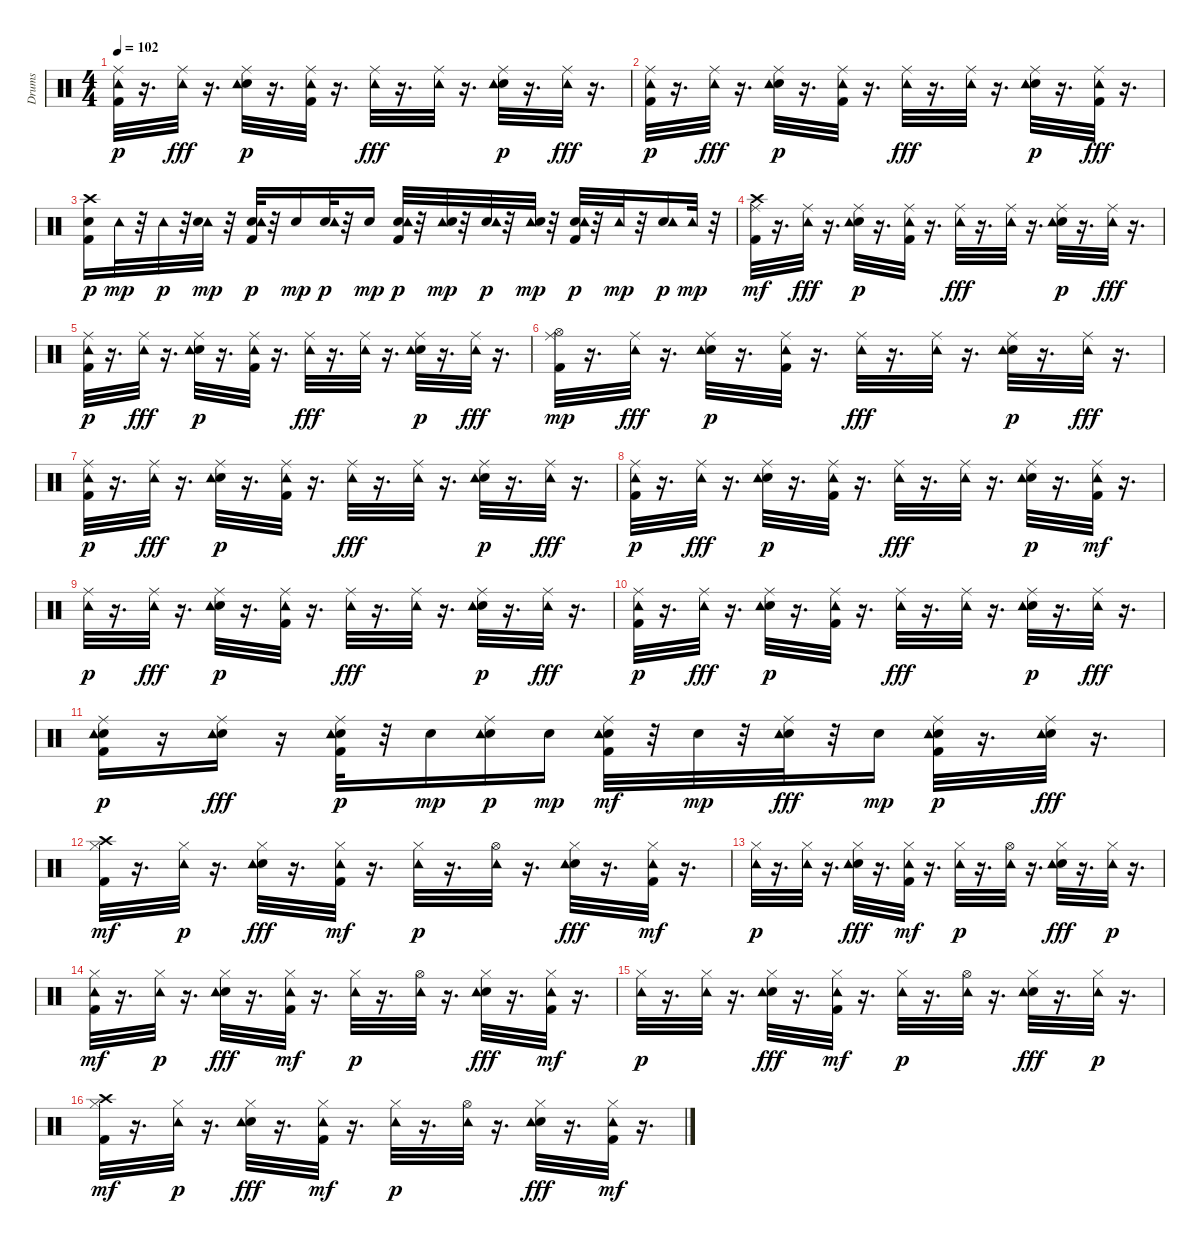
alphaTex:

\track ("Drums" "Drums") {instrument percussion}
\staff {score}
\articulation defaults
\ts (4 4)
\tempo 102
\clef neutral
\ks c
("Kick (hit) 2" "Ride (middle)" "Tambourine (hit)").32{dy p} r.16{d} ("Tambourine (hit)" "Ride (middle)").32{dy fff} r.16{d} ("Ride (middle)" "Electric Snare (hit)" "Tambourine (hit)").32{dy p} r.16{d} ("Kick (hit) 2" "Ride (middle)" "Tambourine (hit)").32 r.16{d} ("Tambourine (hit)" "Ride (middle)").32{dy fff} r.16{d} ("Tambourine (hit)" "Ride (middle)").32 r.16{d} ("Ride (middle)" "Electric Snare (hit)" "Tambourine (hit)").32{dy p} r.16{d} ("Tambourine (hit)" "Ride (middle)").32{dy fff} r.16{d} |
("Kick (hit) 2" "Ride (middle)" "Tambourine (hit)").32{dy p} r.16{d} ("Tambourine (hit)" "Ride (middle)").32{dy fff} r.16{d} ("Ride (middle)" "Electric Snare (hit)" "Tambourine (hit)").32{dy p} r.16{d} ("Kick (hit) 2" "Ride (middle)" "Tambourine (hit)").32 r.16{d} ("Tambourine (hit)" "Ride (middle)").32{dy fff} r.16{d} ("Tambourine (hit)" "Ride (middle)").32 r.16{d} ("Ride (middle)" "Electric Snare (hit)" "Tambourine (hit)").32{dy p} r.16{d} ("Kick (hit) 2" "Tambourine (hit)" "Ride (middle)").32{dy fff} r.16{d} |
("Electric Snare (hit)" "Kick (hit) 2" "Crash high (hit)").16{dy p} "Tambourine (hit)".32{dy mp} r.32 "Tambourine (hit)".32{dy p} r.32 ("Tambourine (hit)" "Electric Snare (hit)").32{dy mp} r.32 ("Kick (hit) 2" "Electric Snare (hit)" "Tambourine (hit)").32{dy p} r.32 "Electric Snare (hit)".16{dy mp} ("Electric Snare (hit)" "Tambourine (hit)").32{dy p} r.32 "Electric Snare (hit)".16{dy mp} ("Kick (hit) 2" "Electric Snare (hit)" "Tambourine (hit)").32{dy p} r.32 ("Tambourine (hit)" "Electric Snare (hit)").32{dy mp} r.32 ("Electric Snare (hit)" "Tambourine (hit)").32{dy p} r.32 ("Tambourine (hit)" "Electric Snare (hit)").32{dy mp} r.32 ("Kick (hit) 2" "Electric Snare (hit)" "Tambourine (hit)").32{dy p} r.32 "Tambourine (hit)".32{dy mp} r.32 ("Electric Snare (hit)" "Tambourine (hit)").16{dy p} "Tambourine (hit)".32{dy mp} r.32 |
("Kick (hit) 2" "Ride (middle)" "Crash high (hit)").32{dy mf} r.16{d} ("Tambourine (hit)" "Ride (middle)").32{dy fff} r.16{d} ("Ride (middle)" "Electric Snare (hit)" "Tambourine (hit)").32{dy p} r.16{d} ("Kick (hit) 2" "Ride (middle)" "Tambourine (hit)").32 r.16{d} ("Tambourine (hit)" "Ride (middle)").32{dy fff} r.16{d} ("Tambourine (hit)" "Ride (middle)").32 r.16{d} ("Ride (middle)" "Electric Snare (hit)" "Tambourine (hit)").32{dy p} r.16{d} ("Tambourine (hit)" "Ride (middle)").32{dy fff} r.16{d} |
("Kick (hit) 2" "Ride (middle)" "Tambourine (hit)").32{dy p} r.16{d} ("Tambourine (hit)" "Ride (middle)").32{dy fff} r.16{d} ("Ride (middle)" "Electric Snare (hit)" "Tambourine (hit)").32{dy p} r.16{d} ("Kick (hit) 2" "Ride (middle)" "Tambourine (hit)").32 r.16{d} ("Tambourine (hit)" "Ride (middle)").32{dy fff} r.16{d} ("Tambourine (hit)" "Ride (middle)").32 r.16{d} ("Ride (middle)" "Electric Snare (hit)" "Tambourine (hit)").32{dy p} r.16{d} ("Tambourine (hit)" "Ride (middle)").32{dy fff} r.16{d} |
("Kick (hit) 2" "Ride (middle)" "Hi-Hat (open)").32{dy mp} r.16{d} ("Tambourine (hit)" "Ride (middle)").32{dy fff} r.16{d} ("Ride (middle)" "Electric Snare (hit)" "Tambourine (hit)").32{dy p} r.16{d} ("Kick (hit) 2" "Ride (middle)" "Tambourine (hit)").32 r.16{d} ("Tambourine (hit)" "Ride (middle)").32{dy fff} r.16{d} ("Tambourine (hit)" "Ride (middle)").32 r.16{d} ("Ride (middle)" "Electric Snare (hit)" "Tambourine (hit)").32{dy p} r.16{d} ("Tambourine (hit)" "Ride (middle)").32{dy fff} r.16{d} |
("Kick (hit) 2" "Ride (middle)" "Tambourine (hit)").32{dy p} r.16{d} ("Tambourine (hit)" "Ride (middle)").32{dy fff} r.16{d} ("Ride (middle)" "Electric Snare (hit)" "Tambourine (hit)").32{dy p} r.16{d} ("Kick (hit) 2" "Ride (middle)" "Tambourine (hit)").32 r.16{d} ("Tambourine (hit)" "Ride (middle)").32{dy fff} r.16{d} ("Tambourine (hit)" "Ride (middle)").32 r.16{d} ("Ride (middle)" "Electric Snare (hit)" "Tambourine (hit)").32{dy p} r.16{d} ("Tambourine (hit)" "Ride (middle)").32{dy fff} r.16{d} |
("Kick (hit) 2" "Ride (middle)" "Tambourine (hit)").32{dy p} r.16{d} ("Tambourine (hit)" "Ride (middle)").32{dy fff} r.16{d} ("Ride (middle)" "Electric Snare (hit)" "Tambourine (hit)").32{dy p} r.16{d} ("Kick (hit) 2" "Ride (middle)" "Tambourine (hit)").32 r.16{d} ("Tambourine (hit)" "Ride (middle)").32{dy fff} r.16{d} ("Tambourine (hit)" "Ride (middle)").32 r.16{d} ("Ride (middle)" "Electric Snare (hit)" "Tambourine (hit)").32{dy p} r.16{d} ("Tambourine (hit)" "Ride (middle)" "Kick (hit) 2").32{dy mf} r.16{d} |
("Ride (middle)" "Tambourine (hit)").32{dy p} r.16{d} ("Tambourine (hit)" "Ride (middle)").32{dy fff} r.16{d} ("Ride (middle)" "Electric Snare (hit)" "Tambourine (hit)").32{dy p} r.16{d} ("Kick (hit) 2" "Ride (middle)" "Tambourine (hit)").32 r.16{d} ("Tambourine (hit)" "Ride (middle)").32{dy fff} r.16{d} ("Tambourine (hit)" "Ride (middle)").32 r.16{d} ("Ride (middle)" "Electric Snare (hit)" "Tambourine (hit)").32{dy p} r.16{d} ("Tambourine (hit)" "Ride (middle)").32{dy fff} r.16{d} |
("Kick (hit) 2" "Ride (middle)" "Tambourine (hit)").32{dy p} r.16{d} ("Tambourine (hit)" "Ride (middle)").32{dy fff} r.16{d} ("Ride (middle)" "Electric Snare (hit)" "Tambourine (hit)").32{dy p} r.16{d} ("Kick (hit) 2" "Ride (middle)" "Tambourine (hit)").32 r.16{d} ("Tambourine (hit)" "Ride (middle)").32{dy fff} r.16{d} ("Tambourine (hit)" "Ride (middle)").32 r.16{d} ("Ride (middle)" "Electric Snare (hit)" "Tambourine (hit)").32{dy p} r.16{d} ("Tambourine (hit)" "Ride (middle)").32{dy fff} r.16{d} |
("Electric Snare (hit)" "Kick (hit) 2" "Ride (middle)" "Tambourine (hit)").16{dy p} r.16 ("Electric Snare (hit)" "Tambourine (hit)" "Ride (middle)").16{dy fff} r.16 ("Kick (hit) 2" "Ride (middle)" "Electric Snare (hit)" "Tambourine (hit)").32{dy p} r.32 "Electric Snare (hit)".16{dy mp} ("Electric Snare (hit)" "Ride (middle)" "Tambourine (hit)").16{dy p} "Electric Snare (hit)".16{dy mp} ("Electric Snare (hit)" "Tambourine (hit)" "Ride (middle)" "Kick (hit) 2").32{dy mf} r.32 "Electric Snare (hit)".32{dy mp} r.32 ("Electric Snare (hit)" "Tambourine (hit)" "Ride (middle)").32{dy fff} r.32 "Electric Snare (hit)".16{dy mp} ("Electric Snare (hit)" "Kick (hit) 2" "Ride (middle)" "Tambourine (hit)").32{dy p} r.16{d} ("Electric Snare (hit)" "Tambourine (hit)" "Ride (middle)").32{dy fff} r.16{d} |
("Hi-Hat (closed)" "Crash high (hit)" "Kick (hit) 2").32{dy mf} r.16{d} ("Hi-Hat (closed)" "Tambourine (hit)").32{dy p} r.16{d} ("Electric Snare (hit)" "Tambourine (hit)" "Hi-Hat (closed)").32{dy fff} r.16{d} ("Hi-Hat (closed)" "Tambourine (hit)" "Kick (hit) 2").32{dy mf} r.16{d} ("Hi-Hat (closed)" "Tambourine (hit)").32{dy p} r.16{d} ("Hi-Hat (open)" "Tambourine (hit)").32 r.16{d} ("Electric Snare (hit)" "Tambourine (hit)" "Hi-Hat (closed)").32{dy fff} r.16{d} ("Hi-Hat (closed)" "Tambourine (hit)" "Kick (hit) 2").32{dy mf} r.16{d} |
("Hi-Hat (closed)" "Tambourine (hit)").32{dy p} r.16{d} ("Hi-Hat (closed)" "Tambourine (hit)").32 r.16{d} ("Electric Snare (hit)" "Tambourine (hit)" "Hi-Hat (closed)").32{dy fff} r.16{d} ("Hi-Hat (closed)" "Tambourine (hit)" "Kick (hit) 2").32{dy mf} r.16{d} ("Hi-Hat (closed)" "Tambourine (hit)").32{dy p} r.16{d} ("Hi-Hat (open)" "Tambourine (hit)").32 r.16{d} ("Electric Snare (hit)" "Tambourine (hit)" "Hi-Hat (closed)").32{dy fff} r.16{d} ("Hi-Hat (closed)" "Tambourine (hit)").32{dy p} r.16{d} |
("Hi-Hat (closed)" "Tambourine (hit)" "Kick (hit) 2").32{dy mf} r.16{d} ("Hi-Hat (closed)" "Tambourine (hit)").32{dy p} r.16{d} ("Electric Snare (hit)" "Tambourine (hit)" "Hi-Hat (closed)").32{dy fff} r.16{d} ("Hi-Hat (closed)" "Tambourine (hit)" "Kick (hit) 2").32{dy mf} r.16{d} ("Hi-Hat (closed)" "Tambourine (hit)").32{dy p} r.16{d} ("Hi-Hat (open)" "Tambourine (hit)").32 r.16{d} ("Electric Snare (hit)" "Tambourine (hit)" "Hi-Hat (closed)").32{dy fff} r.16{d} ("Hi-Hat (closed)" "Tambourine (hit)" "Kick (hit) 2").32{dy mf} r.16{d} |
("Hi-Hat (closed)" "Tambourine (hit)").32{dy p} r.16{d} ("Hi-Hat (closed)" "Tambourine (hit)").32 r.16{d} ("Electric Snare (hit)" "Tambourine (hit)" "Hi-Hat (closed)").32{dy fff} r.16{d} ("Hi-Hat (closed)" "Tambourine (hit)" "Kick (hit) 2").32{dy mf} r.16{d} ("Hi-Hat (closed)" "Tambourine (hit)").32{dy p} r.16{d} ("Hi-Hat (open)" "Tambourine (hit)").32 r.16{d} ("Electric Snare (hit)" "Tambourine (hit)" "Hi-Hat (closed)").32{dy fff} r.16{d} ("Hi-Hat (closed)" "Tambourine (hit)").32{dy p} r.16{d} |
("Hi-Hat (closed)" "Crash high (hit)" "Kick (hit) 2").32{dy mf} r.16{d} ("Hi-Hat (closed)" "Tambourine (hit)").32{dy p} r.16{d} ("Electric Snare (hit)" "Tambourine (hit)" "Hi-Hat (closed)").32{dy fff} r.16{d} ("Hi-Hat (closed)" "Tambourine (hit)" "Kick (hit) 2").32{dy mf} r.16{d} ("Hi-Hat (closed)" "Tambourine (hit)").32{dy p} r.16{d} ("Hi-Hat (open)" "Tambourine (hit)").32 r.16{d} ("Electric Snare (hit)" "Tambourine (hit)" "Hi-Hat (closed)").32{dy fff} r.16{d} ("Hi-Hat (closed)" "Tambourine (hit)" "Kick (hit) 2").32{dy mf} r.16{d}
